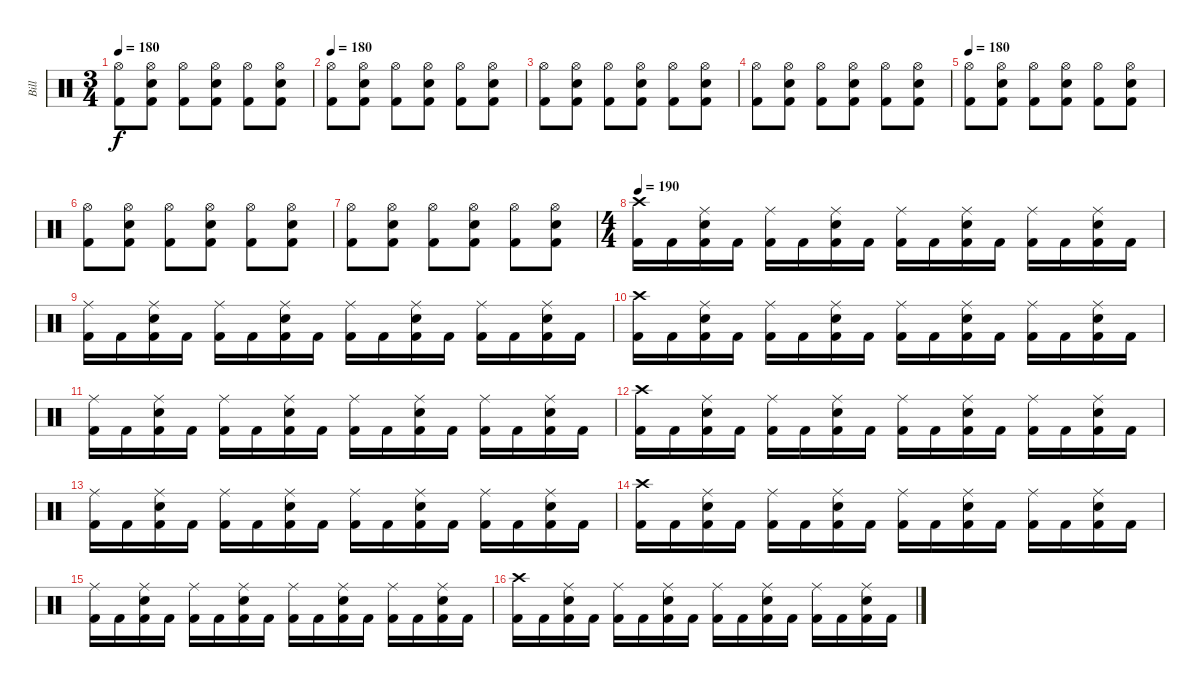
\track ("Bill" "Bill") {instrument percussion}
\staff {score}
\articulation defaults
\ts (3 4)
\tempo 180
\clef neutral
\ks c
("Hi-Hat (open)" "Kick (hit) 2").8{dy f} ("Hi-Hat (open)" "Snare (hit) 2" "Kick (hit) 2").8 ("Hi-Hat (open)" "Kick (hit) 2").8 ("Hi-Hat (open)" "Snare (hit) 2" "Kick (hit) 2").8 ("Hi-Hat (open)" "Kick (hit) 2").8 ("Hi-Hat (open)" "Snare (hit) 2" "Kick (hit) 2").8 |
\tempo 190
\tempo 180
("Hi-Hat (open)" "Kick (hit) 2").8 ("Hi-Hat (open)" "Snare (hit) 2" "Kick (hit) 2").8 ("Hi-Hat (open)" "Kick (hit) 2").8 ("Hi-Hat (open)" "Snare (hit) 2" "Kick (hit) 2").8 ("Hi-Hat (open)" "Kick (hit) 2").8 ("Hi-Hat (open)" "Snare (hit) 2" "Kick (hit) 2").8 |
("Hi-Hat (open)" "Kick (hit) 2").8 ("Hi-Hat (open)" "Snare (hit) 2" "Kick (hit) 2").8 ("Hi-Hat (open)" "Kick (hit) 2").8 ("Hi-Hat (open)" "Snare (hit) 2" "Kick (hit) 2").8 ("Hi-Hat (open)" "Kick (hit) 2").8 ("Hi-Hat (open)" "Snare (hit) 2" "Kick (hit) 2").8 |
("Hi-Hat (open)" "Kick (hit) 2").8 ("Hi-Hat (open)" "Snare (hit) 2" "Kick (hit) 2").8 ("Hi-Hat (open)" "Kick (hit) 2").8 ("Hi-Hat (open)" "Snare (hit) 2" "Kick (hit) 2").8 ("Hi-Hat (open)" "Kick (hit) 2").8 ("Hi-Hat (open)" "Snare (hit) 2" "Kick (hit) 2").8 |
\tempo 190
\tempo 180
("Hi-Hat (open)" "Kick (hit) 2").8 ("Hi-Hat (open)" "Snare (hit) 2" "Kick (hit) 2").8 ("Hi-Hat (open)" "Kick (hit) 2").8 ("Hi-Hat (open)" "Snare (hit) 2" "Kick (hit) 2").8 ("Hi-Hat (open)" "Kick (hit) 2").8 ("Hi-Hat (open)" "Snare (hit) 2" "Kick (hit) 2").8 |
("Hi-Hat (open)" "Kick (hit) 2").8 ("Hi-Hat (open)" "Snare (hit) 2" "Kick (hit) 2").8 ("Hi-Hat (open)" "Kick (hit) 2").8 ("Hi-Hat (open)" "Snare (hit) 2" "Kick (hit) 2").8 ("Hi-Hat (open)" "Kick (hit) 2").8 ("Hi-Hat (open)" "Snare (hit) 2" "Kick (hit) 2").8 |
("Hi-Hat (open)" "Kick (hit) 2").8 ("Hi-Hat (open)" "Snare (hit) 2" "Kick (hit) 2").8 ("Hi-Hat (open)" "Kick (hit) 2").8 ("Hi-Hat (open)" "Snare (hit) 2" "Kick (hit) 2").8 ("Hi-Hat (open)" "Kick (hit) 2").8 ("Hi-Hat (open)" "Snare (hit) 2" "Kick (hit) 2").8 |
\ts (4 4)
\tempo 190
("Crash high (hit)" "Kick (hit) 2").16 "Kick (hit) 2".16 ("Ride (middle)" "Snare (hit) 2" "Kick (hit) 2").16 "Kick (hit) 2".16 ("Ride (middle)" "Kick (hit) 2").16 "Kick (hit) 2".16 ("Ride (middle)" "Snare (hit) 2" "Kick (hit) 2").16 "Kick (hit) 2".16 ("Ride (middle)" "Kick (hit) 2").16 "Kick (hit) 2".16 ("Ride (middle)" "Snare (hit) 2" "Kick (hit) 2").16 "Kick (hit) 2".16 ("Ride (middle)" "Kick (hit) 2").16 "Kick (hit) 2".16 ("Ride (middle)" "Snare (hit) 2" "Kick (hit) 2").16 "Kick (hit) 2".16 |
("Ride (middle)" "Kick (hit) 2").16 "Kick (hit) 2".16 ("Ride (middle)" "Snare (hit) 2" "Kick (hit) 2").16 "Kick (hit) 2".16 ("Ride (middle)" "Kick (hit) 2").16 "Kick (hit) 2".16 ("Ride (middle)" "Snare (hit) 2" "Kick (hit) 2").16 "Kick (hit) 2".16 ("Ride (middle)" "Kick (hit) 2").16 "Kick (hit) 2".16 ("Ride (middle)" "Snare (hit) 2" "Kick (hit) 2").16 "Kick (hit) 2".16 ("Ride (middle)" "Kick (hit) 2").16 "Kick (hit) 2".16 ("Ride (middle)" "Snare (hit) 2" "Kick (hit) 2").16 "Kick (hit) 2".16 |
("Crash high (hit)" "Kick (hit) 2").16 "Kick (hit) 2".16 ("Ride (middle)" "Snare (hit) 2" "Kick (hit) 2").16 "Kick (hit) 2".16 ("Ride (middle)" "Kick (hit) 2").16 "Kick (hit) 2".16 ("Ride (middle)" "Snare (hit) 2" "Kick (hit) 2").16 "Kick (hit) 2".16 ("Ride (middle)" "Kick (hit) 2").16 "Kick (hit) 2".16 ("Ride (middle)" "Snare (hit) 2" "Kick (hit) 2").16 "Kick (hit) 2".16 ("Ride (middle)" "Kick (hit) 2").16 "Kick (hit) 2".16 ("Ride (middle)" "Snare (hit) 2" "Kick (hit) 2").16 "Kick (hit) 2".16 |
("Ride (middle)" "Kick (hit) 2").16 "Kick (hit) 2".16 ("Ride (middle)" "Snare (hit) 2" "Kick (hit) 2").16 "Kick (hit) 2".16 ("Ride (middle)" "Kick (hit) 2").16 "Kick (hit) 2".16 ("Ride (middle)" "Snare (hit) 2" "Kick (hit) 2").16 "Kick (hit) 2".16 ("Ride (middle)" "Kick (hit) 2").16 "Kick (hit) 2".16 ("Ride (middle)" "Snare (hit) 2" "Kick (hit) 2").16 "Kick (hit) 2".16 ("Ride (middle)" "Kick (hit) 2").16 "Kick (hit) 2".16 ("Ride (middle)" "Snare (hit) 2" "Kick (hit) 2").16 "Kick (hit) 2".16 |
("Crash high (hit)" "Kick (hit) 2").16 "Kick (hit) 2".16 ("Ride (middle)" "Snare (hit) 2" "Kick (hit) 2").16 "Kick (hit) 2".16 ("Ride (middle)" "Kick (hit) 2").16 "Kick (hit) 2".16 ("Ride (middle)" "Snare (hit) 2" "Kick (hit) 2").16 "Kick (hit) 2".16 ("Ride (middle)" "Kick (hit) 2").16 "Kick (hit) 2".16 ("Ride (middle)" "Snare (hit) 2" "Kick (hit) 2").16 "Kick (hit) 2".16 ("Ride (middle)" "Kick (hit) 2").16 "Kick (hit) 2".16 ("Ride (middle)" "Snare (hit) 2" "Kick (hit) 2").16 "Kick (hit) 2".16 |
("Ride (middle)" "Kick (hit) 2").16 "Kick (hit) 2".16 ("Ride (middle)" "Snare (hit) 2" "Kick (hit) 2").16 "Kick (hit) 2".16 ("Ride (middle)" "Kick (hit) 2").16 "Kick (hit) 2".16 ("Ride (middle)" "Snare (hit) 2" "Kick (hit) 2").16 "Kick (hit) 2".16 ("Ride (middle)" "Kick (hit) 2").16 "Kick (hit) 2".16 ("Ride (middle)" "Snare (hit) 2" "Kick (hit) 2").16 "Kick (hit) 2".16 ("Ride (middle)" "Kick (hit) 2").16 "Kick (hit) 2".16 ("Ride (middle)" "Snare (hit) 2" "Kick (hit) 2").16 "Kick (hit) 2".16 |
("Crash high (hit)" "Kick (hit) 2").16 "Kick (hit) 2".16 ("Ride (middle)" "Snare (hit) 2" "Kick (hit) 2").16 "Kick (hit) 2".16 ("Ride (middle)" "Kick (hit) 2").16 "Kick (hit) 2".16 ("Ride (middle)" "Snare (hit) 2" "Kick (hit) 2").16 "Kick (hit) 2".16 ("Ride (middle)" "Kick (hit) 2").16 "Kick (hit) 2".16 ("Ride (middle)" "Snare (hit) 2" "Kick (hit) 2").16 "Kick (hit) 2".16 ("Ride (middle)" "Kick (hit) 2").16 "Kick (hit) 2".16 ("Ride (middle)" "Snare (hit) 2" "Kick (hit) 2").16 "Kick (hit) 2".16 |
("Ride (middle)" "Kick (hit) 2").16 "Kick (hit) 2".16 ("Ride (middle)" "Snare (hit) 2" "Kick (hit) 2").16 "Kick (hit) 2".16 ("Ride (middle)" "Kick (hit) 2").16 "Kick (hit) 2".16 ("Ride (middle)" "Snare (hit) 2" "Kick (hit) 2").16 "Kick (hit) 2".16 ("Ride (middle)" "Kick (hit) 2").16 "Kick (hit) 2".16 ("Ride (middle)" "Snare (hit) 2" "Kick (hit) 2").16 "Kick (hit) 2".16 ("Ride (middle)" "Kick (hit) 2").16 "Kick (hit) 2".16 ("Ride (middle)" "Snare (hit) 2" "Kick (hit) 2").16 "Kick (hit) 2".16 |
("Crash high (hit)" "Kick (hit) 2").16 "Kick (hit) 2".16 ("Ride (middle)" "Snare (hit) 2" "Kick (hit) 2").16 "Kick (hit) 2".16 ("Ride (middle)" "Kick (hit) 2").16 "Kick (hit) 2".16 ("Ride (middle)" "Snare (hit) 2" "Kick (hit) 2").16 "Kick (hit) 2".16 ("Ride (middle)" "Kick (hit) 2").16 "Kick (hit) 2".16 ("Ride (middle)" "Snare (hit) 2" "Kick (hit) 2").16 "Kick (hit) 2".16 ("Ride (middle)" "Kick (hit) 2").16 "Kick (hit) 2".16 ("Ride (middle)" "Snare (hit) 2" "Kick (hit) 2").16 "Kick (hit) 2".16
